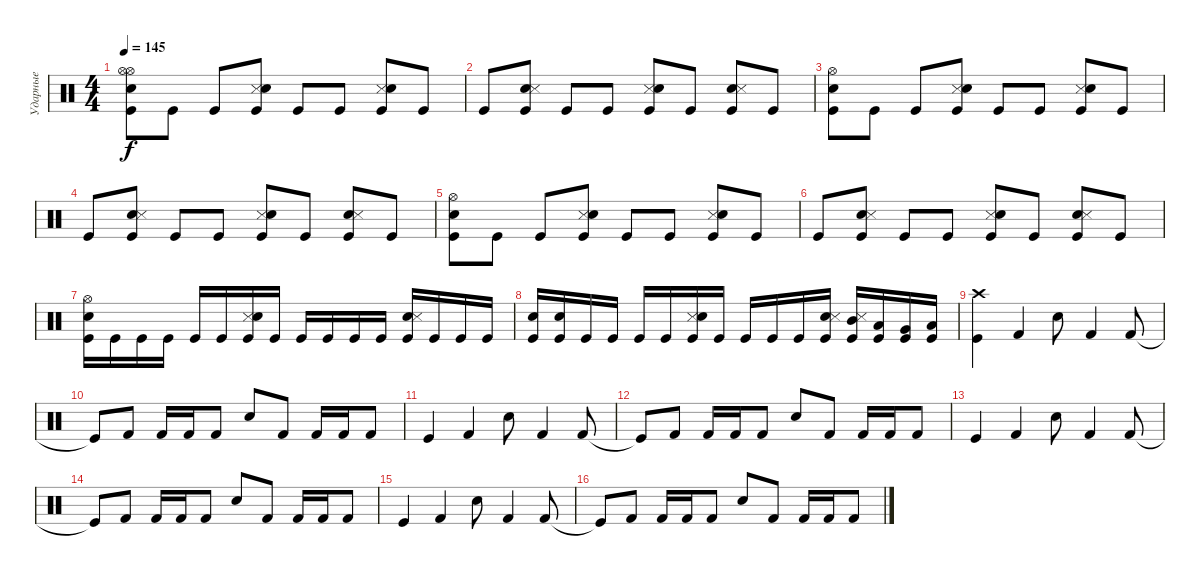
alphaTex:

\track ("Ударные" "Ударные") {instrument percussion}
\staff {score}
\articulation defaults
\ts (4 4)
\tempo 145
\clef neutral
\ks c
("Hi-Hat (open)" "Snare (hit) 2" "Kick (hit)" "Hi-Hat (open)").8{dy f} "Kick (hit)".8 "Kick (hit)".8 ("Snare (side stick) 3" "Snare (hit) 2" "Kick (hit)").8 "Kick (hit)".8 "Kick (hit)".8 ("Snare (side stick) 3" "Snare (hit) 2" "Kick (hit)").8 "Kick (hit)".8 |
"Kick (hit)".8 ("Snare (hit) 2" "Kick (hit)" "Snare (side stick) 3").8 "Kick (hit)".8 "Kick (hit)".8 ("Kick (hit)" "Snare (side stick) 3" "Snare (hit) 2").8 "Kick (hit)".8 ("Kick (hit)" "Snare (hit) 2" "Snare (side stick) 3").8 "Kick (hit)".8 |
("Hi-Hat (open)" "Snare (hit) 2" "Kick (hit)").8 "Kick (hit)".8 "Kick (hit)".8 ("Snare (side stick) 3" "Snare (hit) 2" "Kick (hit)").8 "Kick (hit)".8 "Kick (hit)".8 ("Snare (side stick) 3" "Snare (hit) 2" "Kick (hit)").8 "Kick (hit)".8 |
"Kick (hit)".8 ("Snare (hit) 2" "Kick (hit)" "Snare (side stick) 3").8 "Kick (hit)".8 "Kick (hit)".8 ("Kick (hit)" "Snare (side stick) 3" "Snare (hit) 2").8 "Kick (hit)".8 ("Kick (hit)" "Snare (hit) 2" "Snare (side stick) 3").8 "Kick (hit)".8 |
("Hi-Hat (open)" "Snare (hit) 2" "Kick (hit)").8 "Kick (hit)".8 "Kick (hit)".8 ("Snare (side stick) 3" "Snare (hit) 2" "Kick (hit)").8 "Kick (hit)".8 "Kick (hit)".8 ("Snare (side stick) 3" "Snare (hit) 2" "Kick (hit)").8 "Kick (hit)".8 |
"Kick (hit)".8 ("Snare (hit) 2" "Kick (hit)" "Snare (side stick) 3").8 "Kick (hit)".8 "Kick (hit)".8 ("Kick (hit)" "Snare (side stick) 3" "Snare (hit) 2").8 "Kick (hit)".8 ("Kick (hit)" "Snare (hit) 2" "Snare (side stick) 3").8 "Kick (hit)".8 |
("Hi-Hat (open)" "Snare (hit) 2" "Kick (hit)").16 "Kick (hit)".16 "Kick (hit)".16 "Kick (hit)".16 "Kick (hit)".16 "Kick (hit)".16 ("Snare (side stick) 3" "Snare (hit) 2" "Kick (hit)").16 "Kick (hit)".16 "Kick (hit)".16 "Kick (hit)".16 "Kick (hit)".16 "Kick (hit)".16 ("Snare (hit) 2" "Snare (side stick) 3" "Kick (hit)").16 "Kick (hit)".16 "Kick (hit)".16 "Kick (hit)".16 |
("Snare (hit) 2" "Kick (hit)").16 ("Snare (hit) 2" "Kick (hit)").16 "Kick (hit)".16 "Kick (hit)".16 "Kick (hit)".16 "Kick (hit)".16 ("Snare (side stick) 3" "Snare (hit) 2" "Kick (hit)").16 "Kick (hit)".16 "Kick (hit)".16 "Kick (hit)".16 "Kick (hit)".16 ("Snare (hit) 2" "Kick (hit)" "Snare (side stick) 3").16 ("Snare (side stick) 3" "Kick (hit)" "Mid Tom (hit)").16 ("Kick (hit)" "Low Tom (hit)").16 ("Kick (hit)" "Very Low Tom (hit)").16 ("Kick (hit)" "Low Floor Tom (hit)").16 |
("Crash high (hit)" "Kick (hit)").4 "Kick (hit) 2".4 "Electric Snare (hit)".8 "Kick (hit) 2".4 "Kick (hit) 2".8 |
"Kick (hit)"{t}.8 "Kick (hit) 2".8 "Kick (hit) 2".16 "Kick (hit) 2".16 "Kick (hit) 2".8 "Electric Snare (hit)".8 "Kick (hit) 2".8 "Kick (hit) 2".16 "Kick (hit) 2".16 "Kick (hit) 2".8 |
"Kick (hit)".4 "Kick (hit) 2".4 "Electric Snare (hit)".8 "Kick (hit) 2".4 "Kick (hit) 2".8 |
"Kick (hit)"{t}.8 "Kick (hit) 2".8 "Kick (hit) 2".16 "Kick (hit) 2".16 "Kick (hit) 2".8 "Electric Snare (hit)".8 "Kick (hit) 2".8 "Kick (hit) 2".16 "Kick (hit) 2".16 "Kick (hit) 2".8 |
"Kick (hit)".4 "Kick (hit) 2".4 "Electric Snare (hit)".8 "Kick (hit) 2".4 "Kick (hit) 2".8 |
"Kick (hit)"{t}.8 "Kick (hit) 2".8 "Kick (hit) 2".16 "Kick (hit) 2".16 "Kick (hit) 2".8 "Electric Snare (hit)".8 "Kick (hit) 2".8 "Kick (hit) 2".16 "Kick (hit) 2".16 "Kick (hit) 2".8 |
"Kick (hit)".4 "Kick (hit) 2".4 "Electric Snare (hit)".8 "Kick (hit) 2".4 "Kick (hit) 2".8 |
"Kick (hit)"{t}.8 "Kick (hit) 2".8 "Kick (hit) 2".16 "Kick (hit) 2".16 "Kick (hit) 2".8 "Electric Snare (hit)".8 "Kick (hit) 2".8 "Kick (hit) 2".16 "Kick (hit) 2".16 "Kick (hit) 2".8
